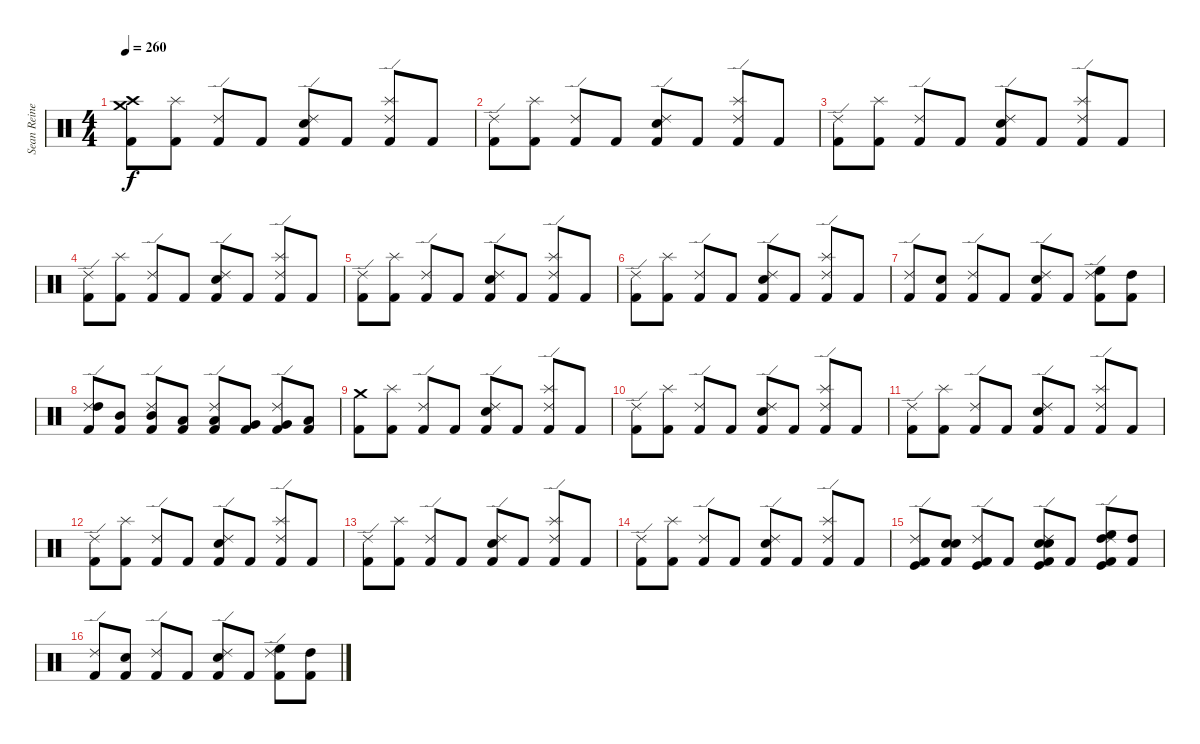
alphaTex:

\track ("Sean Reinert" "Sean Reine") {instrument percussion}
\staff {score}
\articulation defaults
\ts (4 4)
\tempo 260
\clef neutral
\ks c
("Crash medium (hit)" "Crash high (hit)" "Kick (hit) 2").8{dy f} ("Splash (hit)" "Kick (hit) 2").8 ("Ride (edge) 2" "Kick (hit) 2").8 "Kick (hit) 2".8 ("Ride (edge) 2" "Snare (hit) 2" "Kick (hit) 2").8 "Kick (hit) 2".8 ("Splash (hit)" "Ride (edge) 2" "Kick (hit) 2").8 "Kick (hit) 2".8 |
("Ride (edge) 2" "Kick (hit) 2").8 ("Splash (hit)" "Kick (hit) 2").8 ("Ride (edge) 2" "Kick (hit) 2").8 "Kick (hit) 2".8 ("Ride (edge) 2" "Snare (hit) 2" "Kick (hit) 2").8 "Kick (hit) 2".8 ("Splash (hit)" "Ride (edge) 2" "Kick (hit) 2").8 "Kick (hit) 2".8 |
("Ride (edge) 2" "Kick (hit) 2").8 ("Splash (hit)" "Kick (hit) 2").8 ("Ride (edge) 2" "Kick (hit) 2").8 "Kick (hit) 2".8 ("Ride (edge) 2" "Snare (hit) 2" "Kick (hit) 2").8 "Kick (hit) 2".8 ("Splash (hit)" "Ride (edge) 2" "Kick (hit) 2").8 "Kick (hit) 2".8 |
("Ride (edge) 2" "Kick (hit) 2").8 ("Splash (hit)" "Kick (hit) 2").8 ("Ride (edge) 2" "Kick (hit) 2").8 "Kick (hit) 2".8 ("Ride (edge) 2" "Snare (hit) 2" "Kick (hit) 2").8 "Kick (hit) 2".8 ("Splash (hit)" "Ride (edge) 2" "Kick (hit) 2").8 "Kick (hit) 2".8 |
("Ride (edge) 2" "Kick (hit) 2").8 ("Splash (hit)" "Kick (hit) 2").8 ("Ride (edge) 2" "Kick (hit) 2").8 "Kick (hit) 2".8 ("Ride (edge) 2" "Snare (hit) 2" "Kick (hit) 2").8 "Kick (hit) 2".8 ("Splash (hit)" "Ride (edge) 2" "Kick (hit) 2").8 "Kick (hit) 2".8 |
("Ride (edge) 2" "Kick (hit) 2").8 ("Splash (hit)" "Kick (hit) 2").8 ("Ride (edge) 2" "Kick (hit) 2").8 "Kick (hit) 2".8 ("Ride (edge) 2" "Snare (hit) 2" "Kick (hit) 2").8 "Kick (hit) 2".8 ("Splash (hit)" "Ride (edge) 2" "Kick (hit) 2").8 "Kick (hit) 2".8 |
("Ride (edge) 2" "Kick (hit) 2").8 ("Snare (hit) 2" "Kick (hit) 2").8 ("Ride (edge) 2" "Kick (hit) 2").8 "Kick (hit) 2".8 ("Ride (edge) 2" "Snare (hit) 2" "Kick (hit) 2").8 "Kick (hit) 2".8 ("Ride (edge) 2" "High Floor Tom (hit)" "Kick (hit) 2").8 ("High Tom (hit)" "Kick (hit) 2").8 |
("Ride (edge) 2" "High Tom (hit)" "Kick (hit) 2").8 ("Mid Tom (hit)" "Kick (hit) 2").8 ("Ride (edge) 2" "Mid Tom (hit)" "Kick (hit) 2").8 ("Low Tom (hit)" "Kick (hit) 2").8 ("Ride (edge) 2" "Low Tom (hit)" "Kick (hit) 2").8 ("Very Low Tom (hit)" "Kick (hit) 2").8 ("Ride (edge) 2" "Very Low Tom (hit)" "Kick (hit) 2").8 ("Low Floor Tom (hit)" "Kick (hit) 2").8 |
("Crash medium (hit)" "Kick (hit) 2").8 ("Splash (hit)" "Kick (hit) 2").8 ("Ride (edge) 2" "Kick (hit) 2").8 "Kick (hit) 2".8 ("Ride (edge) 2" "Snare (hit) 2" "Kick (hit) 2").8 "Kick (hit) 2".8 ("Splash (hit)" "Ride (edge) 2" "Kick (hit) 2").8 "Kick (hit) 2".8 |
("Ride (edge) 2" "Kick (hit) 2").8 ("Splash (hit)" "Kick (hit) 2").8 ("Ride (edge) 2" "Kick (hit) 2").8 "Kick (hit) 2".8 ("Ride (edge) 2" "Snare (hit) 2" "Kick (hit) 2").8 "Kick (hit) 2".8 ("Splash (hit)" "Ride (edge) 2" "Kick (hit) 2").8 "Kick (hit) 2".8 |
("Ride (edge) 2" "Kick (hit) 2").8 ("Splash (hit)" "Kick (hit) 2").8 ("Ride (edge) 2" "Kick (hit) 2").8 "Kick (hit) 2".8 ("Ride (edge) 2" "Snare (hit) 2" "Kick (hit) 2").8 "Kick (hit) 2".8 ("Splash (hit)" "Ride (edge) 2" "Kick (hit) 2").8 "Kick (hit) 2".8 |
("Ride (edge) 2" "Kick (hit) 2").8 ("Splash (hit)" "Kick (hit) 2").8 ("Ride (edge) 2" "Kick (hit) 2").8 "Kick (hit) 2".8 ("Ride (edge) 2" "Snare (hit) 2" "Kick (hit) 2").8 "Kick (hit) 2".8 ("Splash (hit)" "Ride (edge) 2" "Kick (hit) 2").8 "Kick (hit) 2".8 |
("Ride (edge) 2" "Kick (hit) 2").8 ("Splash (hit)" "Kick (hit) 2").8 ("Ride (edge) 2" "Kick (hit) 2").8 "Kick (hit) 2".8 ("Ride (edge) 2" "Snare (hit) 2" "Kick (hit) 2").8 "Kick (hit) 2".8 ("Splash (hit)" "Ride (edge) 2" "Kick (hit) 2").8 "Kick (hit) 2".8 |
("Ride (edge) 2" "Kick (hit) 2").8 ("Splash (hit)" "Kick (hit) 2").8 ("Ride (edge) 2" "Kick (hit) 2").8 "Kick (hit) 2".8 ("Ride (edge) 2" "Snare (hit) 2" "Kick (hit) 2").8 "Kick (hit) 2".8 ("Splash (hit)" "Ride (edge) 2" "Kick (hit) 2").8 "Kick (hit) 2".8 |
("Kick (hit) 2" "Kick (hit)" "Ride (edge) 2").8 ("Kick (hit) 2" "Electric Snare (hit)" "Electric Snare (hit)").8 ("Kick (hit) 2" "Kick (hit)" "Ride (edge) 2").8 "Kick (hit) 2".8 ("Kick (hit) 2" "Kick (hit)" "Electric Snare (hit)" "Electric Snare (hit)" "Ride (edge) 2").8 "Kick (hit) 2".8 ("Kick (hit) 2" "Kick (hit)" "High Floor Tom (hit)" "High Tom (hit)" "Ride (edge) 2").8 ("Kick (hit) 2" "High Tom (hit)").8 |
("Ride (edge) 2" "Kick (hit) 2").8 ("Snare (hit) 2" "Kick (hit) 2").8 ("Ride (edge) 2" "Kick (hit) 2").8 "Kick (hit) 2".8 ("Ride (edge) 2" "Snare (hit) 2" "Kick (hit) 2").8 "Kick (hit) 2".8 ("Ride (edge) 2" "High Floor Tom (hit)" "Kick (hit) 2").8 ("High Tom (hit)" "Kick (hit) 2").8
